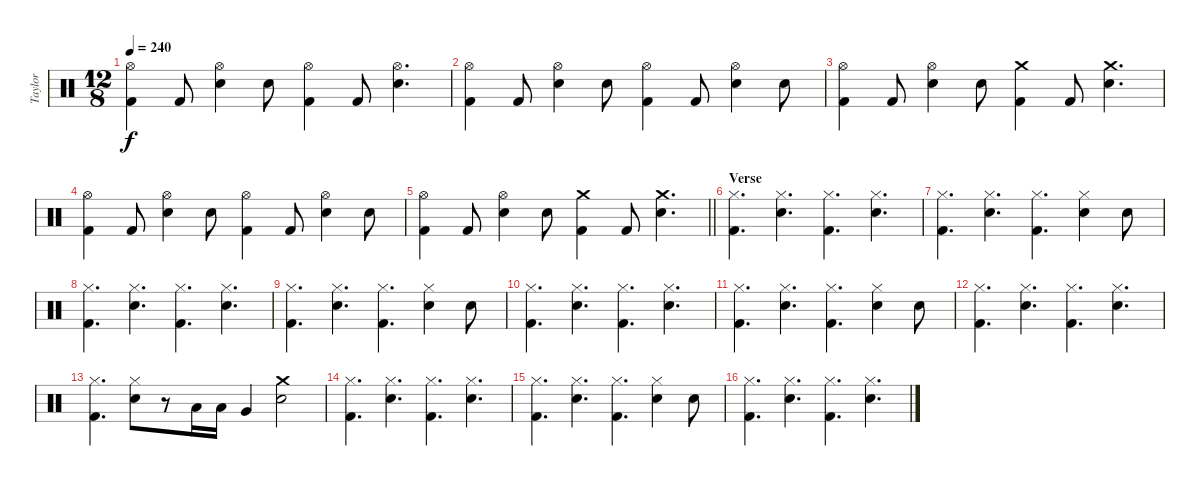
\track ("Taylor" "Taylor") {instrument percussion}
\staff {score}
\articulation defaults
\ts (12 8)
\tempo 240
\clef neutral
\ks c
("Hi-Hat (open)" "Kick (hit) 2").4{dy f} "Kick (hit) 2".8 ("Hi-Hat (open)" "Snare (hit) 2").4 "Snare (hit) 2".8 ("Hi-Hat (open)" "Kick (hit) 2").4 "Kick (hit) 2".8 ("Hi-Hat (open)" "Snare (hit) 2").4{d} |
("Hi-Hat (open)" "Kick (hit) 2").4 "Kick (hit) 2".8 ("Hi-Hat (open)" "Snare (hit) 2").4 "Snare (hit) 2".8 ("Hi-Hat (open)" "Kick (hit) 2").4 "Kick (hit) 2".8 ("Hi-Hat (open)" "Snare (hit) 2").4 "Snare (hit) 2".8 |
("Hi-Hat (open)" "Kick (hit) 2").4 "Kick (hit) 2".8 ("Hi-Hat (open)" "Snare (hit) 2").4 "Snare (hit) 2".8 ("Crash medium (hit)" "Kick (hit) 2").4 "Kick (hit) 2".8 ("Crash medium (hit)" "Snare (hit) 2").4{d} |
("Hi-Hat (open)" "Kick (hit) 2").4 "Kick (hit) 2".8 ("Hi-Hat (open)" "Snare (hit) 2").4 "Snare (hit) 2".8 ("Hi-Hat (open)" "Kick (hit) 2").4 "Kick (hit) 2".8 ("Hi-Hat (open)" "Snare (hit) 2").4 "Snare (hit) 2".8 |
\barLineRight lightlight
("Hi-Hat (open)" "Kick (hit) 2").4 "Kick (hit) 2".8 ("Hi-Hat (open)" "Snare (hit) 2").4 "Snare (hit) 2".8 ("Crash medium (hit)" "Kick (hit) 2").4 "Kick (hit) 2".8 ("Crash medium (hit)" "Snare (hit) 2").4{d} |
\section ("" "Verse")
("Hi-Hat (closed)" "Kick (hit) 2").4{d} ("Hi-Hat (closed)" "Snare (hit) 2").4{d} ("Hi-Hat (closed)" "Kick (hit) 2").4{d} ("Hi-Hat (closed)" "Snare (hit) 2").4{d} |
("Hi-Hat (closed)" "Kick (hit) 2").4{d} ("Hi-Hat (closed)" "Snare (hit) 2").4{d} ("Hi-Hat (closed)" "Kick (hit) 2").4{d} ("Hi-Hat (closed)" "Snare (hit) 2").4 "Snare (hit) 2".8 |
("Hi-Hat (closed)" "Kick (hit) 2").4{d} ("Hi-Hat (closed)" "Snare (hit) 2").4{d} ("Hi-Hat (closed)" "Kick (hit) 2").4{d} ("Hi-Hat (closed)" "Snare (hit) 2").4{d} |
("Hi-Hat (closed)" "Kick (hit) 2").4{d} ("Hi-Hat (closed)" "Snare (hit) 2").4{d} ("Hi-Hat (closed)" "Kick (hit) 2").4{d} ("Hi-Hat (closed)" "Snare (hit) 2").4 "Snare (hit) 2".8 |
("Hi-Hat (closed)" "Kick (hit) 2").4{d} ("Hi-Hat (closed)" "Snare (hit) 2").4{d} ("Hi-Hat (closed)" "Kick (hit) 2").4{d} ("Hi-Hat (closed)" "Snare (hit) 2").4{d} |
("Hi-Hat (closed)" "Kick (hit) 2").4{d} ("Hi-Hat (closed)" "Snare (hit) 2").4{d} ("Hi-Hat (closed)" "Kick (hit) 2").4{d} ("Hi-Hat (closed)" "Snare (hit) 2").4 "Snare (hit) 2".8 |
("Hi-Hat (closed)" "Kick (hit) 2").4{d} ("Hi-Hat (closed)" "Snare (hit) 2").4{d} ("Hi-Hat (closed)" "Kick (hit) 2").4{d} ("Hi-Hat (closed)" "Snare (hit) 2").4{d} |
("Hi-Hat (closed)" "Kick (hit) 2").4{d} ("Hi-Hat (closed)" "Snare (hit) 2").8 r.8 "Low Tom (hit)".16 "Low Tom (hit)".16 "Very Low Tom (hit)".4 ("Crash medium (hit)" "Snare (hit) 2").2 |
("Hi-Hat (closed)" "Kick (hit) 2").4{d} ("Hi-Hat (closed)" "Snare (hit) 2").4{d} ("Hi-Hat (closed)" "Kick (hit) 2").4{d} ("Hi-Hat (closed)" "Snare (hit) 2").4{d} |
("Hi-Hat (closed)" "Kick (hit) 2").4{d} ("Hi-Hat (closed)" "Snare (hit) 2").4{d} ("Hi-Hat (closed)" "Kick (hit) 2").4{d} ("Hi-Hat (closed)" "Snare (hit) 2").4 "Snare (hit) 2".8 |
("Hi-Hat (closed)" "Kick (hit) 2").4{d} ("Hi-Hat (closed)" "Snare (hit) 2").4{d} ("Hi-Hat (closed)" "Kick (hit) 2").4{d} ("Hi-Hat (closed)" "Snare (hit) 2").4{d}
